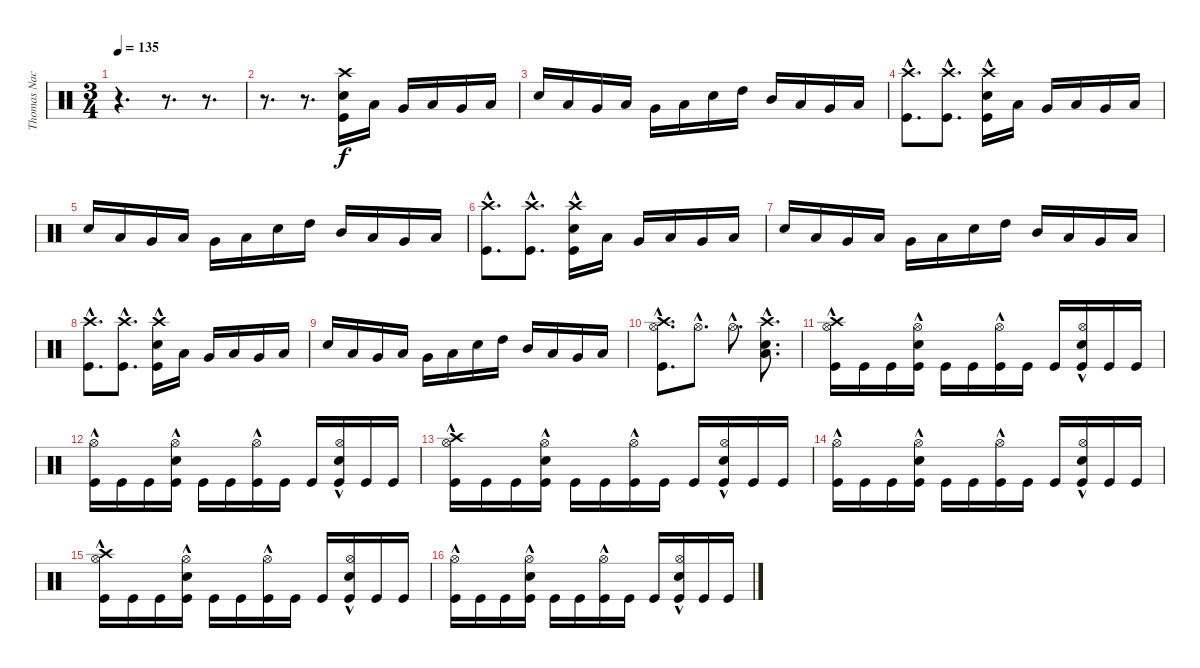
\track ("Thomas Nack" "Thomas Nac") {instrument percussion}
\staff {score}
\articulation defaults
\ts (3 4)
\tempo 135
\clef neutral
\ks c
r.4{d dy f} r.8{d} r.8{d} |
r.8{d} r.8{d} ("Crash high (hit)" "Kick (hit)" "Snare (hit) 2").16 "Low Floor Tom (hit)".16 "Very Low Tom (hit)".16 "Low Floor Tom (hit)".16 "Very Low Tom (hit)".16 "Low Floor Tom (hit)".16 |
"Snare (hit) 2".16 "Low Floor Tom (hit)".16 "Very Low Tom (hit)".16 "Low Floor Tom (hit)".16 "Very Low Tom (hit)".16 "Low Floor Tom (hit)".16 "Snare (hit) 2".16 "High Tom (hit)".16 "Mid Tom (hit)".16 "Low Tom (hit)".16 "Very Low Tom (hit)".16 "Low Floor Tom (hit)".16 |
("Crash high (hit)"{hac} "Kick (hit)"{hac}).8{d} ("Crash high (hit)"{hac} "Kick (hit)"{hac}).8{d} ("Crash high (hit)"{hac} "Kick (hit)"{hac} "Snare (hit) 2").16 "Low Floor Tom (hit)".16 "Very Low Tom (hit)".16 "Low Floor Tom (hit)".16 "Very Low Tom (hit)".16 "Low Floor Tom (hit)".16 |
"Snare (hit) 2".16 "Low Floor Tom (hit)".16 "Very Low Tom (hit)".16 "Low Floor Tom (hit)".16 "Very Low Tom (hit)".16 "Low Floor Tom (hit)".16 "Snare (hit) 2".16 "High Tom (hit)".16 "Mid Tom (hit)".16 "Low Tom (hit)".16 "Very Low Tom (hit)".16 "Low Floor Tom (hit)".16 |
("Crash high (hit)"{hac} "Kick (hit)"{hac}).8{d} ("Crash high (hit)"{hac} "Kick (hit)"{hac}).8{d} ("Crash high (hit)"{hac} "Kick (hit)"{hac} "Snare (hit) 2").16 "Low Floor Tom (hit)".16 "Very Low Tom (hit)".16 "Low Floor Tom (hit)".16 "Very Low Tom (hit)".16 "Low Floor Tom (hit)".16 |
"Snare (hit) 2".16 "Low Floor Tom (hit)".16 "Very Low Tom (hit)".16 "Low Floor Tom (hit)".16 "Very Low Tom (hit)".16 "Low Floor Tom (hit)".16 "Snare (hit) 2".16 "High Tom (hit)".16 "Mid Tom (hit)".16 "Low Tom (hit)".16 "Very Low Tom (hit)".16 "Low Floor Tom (hit)".16 |
("Crash high (hit)"{hac} "Kick (hit)"{hac}).8{d} ("Crash high (hit)"{hac} "Kick (hit)"{hac}).8{d} ("Crash high (hit)"{hac} "Kick (hit)"{hac} "Snare (hit) 2").16 "Low Floor Tom (hit)".16 "Very Low Tom (hit)".16 "Low Floor Tom (hit)".16 "Very Low Tom (hit)".16 "Low Floor Tom (hit)".16 |
"Snare (hit) 2".16 "Low Floor Tom (hit)".16 "Very Low Tom (hit)".16 "Low Floor Tom (hit)".16 "Very Low Tom (hit)".16 "Low Floor Tom (hit)".16 "Snare (hit) 2".16 "High Tom (hit)".16 "Mid Tom (hit)".16 "Low Tom (hit)".16 "Very Low Tom (hit)".16 "Low Floor Tom (hit)".16 |
("Crash high (hit)"{hac} "Kick (hit)"{hac} "Hi-Hat (open)"{hac}).8{d} "Hi-Hat (open)"{hac}.8{d} "Hi-Hat (open)"{hac}.8{d} ("Crash high (hit)"{hac} "Low Floor Tom (hit)"{hac} "Snare (hit) 2").8{d} |
("Crash high (hit)" "Hi-Hat (open)"{hac} "Kick (hit)").16 "Kick (hit)".16 "Kick (hit)".16 ("Hi-Hat (open)"{hac} "Kick (hit)" "Electric Snare (hit)").16 "Kick (hit)".16 "Kick (hit)".16 ("Hi-Hat (open)"{hac} "Kick (hit)").16 "Kick (hit)".16 "Kick (hit)".16 ("Hi-Hat (open)"{hac} "Kick (hit)" "Electric Snare (hit)").16 "Kick (hit)".16 "Kick (hit)".16 |
("Hi-Hat (open)"{hac} "Kick (hit)").16 "Kick (hit)".16 "Kick (hit)".16 ("Hi-Hat (open)"{hac} "Kick (hit)" "Electric Snare (hit)").16 "Kick (hit)".16 "Kick (hit)".16 ("Hi-Hat (open)"{hac} "Kick (hit)").16 "Kick (hit)".16 "Kick (hit)".16 ("Hi-Hat (open)"{hac} "Kick (hit)" "Electric Snare (hit)").16 "Kick (hit)".16 "Kick (hit)".16 |
("Crash high (hit)" "Hi-Hat (open)"{hac} "Kick (hit)").16 "Kick (hit)".16 "Kick (hit)".16 ("Hi-Hat (open)"{hac} "Kick (hit)" "Electric Snare (hit)").16 "Kick (hit)".16 "Kick (hit)".16 ("Hi-Hat (open)"{hac} "Kick (hit)").16 "Kick (hit)".16 "Kick (hit)".16 ("Hi-Hat (open)"{hac} "Kick (hit)" "Electric Snare (hit)").16 "Kick (hit)".16 "Kick (hit)".16 |
("Hi-Hat (open)"{hac} "Kick (hit)").16 "Kick (hit)".16 "Kick (hit)".16 ("Hi-Hat (open)"{hac} "Kick (hit)" "Electric Snare (hit)").16 "Kick (hit)".16 "Kick (hit)".16 ("Hi-Hat (open)"{hac} "Kick (hit)").16 "Kick (hit)".16 "Kick (hit)".16 ("Hi-Hat (open)"{hac} "Kick (hit)" "Electric Snare (hit)").16 "Kick (hit)".16 "Kick (hit)".16 |
("Crash high (hit)" "Hi-Hat (open)"{hac} "Kick (hit)").16 "Kick (hit)".16 "Kick (hit)".16 ("Hi-Hat (open)"{hac} "Kick (hit)" "Electric Snare (hit)").16 "Kick (hit)".16 "Kick (hit)".16 ("Hi-Hat (open)"{hac} "Kick (hit)").16 "Kick (hit)".16 "Kick (hit)".16 ("Hi-Hat (open)"{hac} "Kick (hit)" "Electric Snare (hit)").16 "Kick (hit)".16 "Kick (hit)".16 |
("Hi-Hat (open)"{hac} "Kick (hit)").16 "Kick (hit)".16 "Kick (hit)".16 ("Hi-Hat (open)"{hac} "Kick (hit)" "Electric Snare (hit)").16 "Kick (hit)".16 "Kick (hit)".16 ("Hi-Hat (open)"{hac} "Kick (hit)").16 "Kick (hit)".16 "Kick (hit)".16 ("Hi-Hat (open)"{hac} "Kick (hit)" "Electric Snare (hit)").16 "Kick (hit)".16 "Kick (hit)".16
